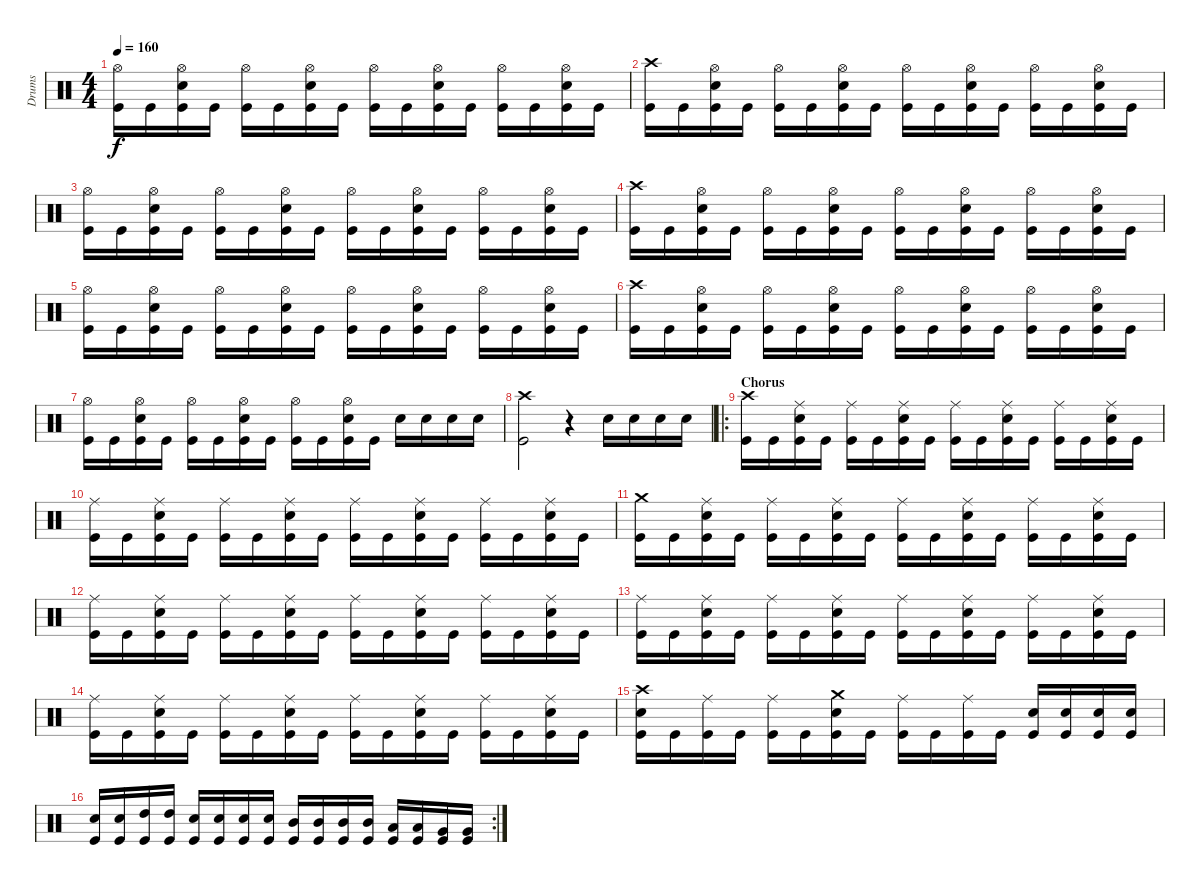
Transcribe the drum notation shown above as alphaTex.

\track ("Drums" "Drums") {instrument percussion}
\staff {score}
\articulation defaults
\ts (4 4)
\tempo 160
\clef neutral
\ks c
("Hi-Hat (open)" "Kick (hit)").16{dy f} "Kick (hit)".16 ("Hi-Hat (open)" "Electric Snare (hit)" "Kick (hit)").16 "Kick (hit)".16 ("Hi-Hat (open)" "Kick (hit)").16 "Kick (hit)".16 ("Hi-Hat (open)" "Electric Snare (hit)" "Kick (hit)").16 "Kick (hit)".16 ("Hi-Hat (open)" "Kick (hit)").16 "Kick (hit)".16 ("Hi-Hat (open)" "Electric Snare (hit)" "Kick (hit)").16 "Kick (hit)".16 ("Hi-Hat (open)" "Kick (hit)").16 "Kick (hit)".16 ("Hi-Hat (open)" "Electric Snare (hit)" "Kick (hit)").16 "Kick (hit)".16 |
("Crash high (hit)" "Kick (hit)").16 "Kick (hit)".16 ("Hi-Hat (open)" "Electric Snare (hit)" "Kick (hit)").16 "Kick (hit)".16 ("Hi-Hat (open)" "Kick (hit)").16 "Kick (hit)".16 ("Hi-Hat (open)" "Electric Snare (hit)" "Kick (hit)").16 "Kick (hit)".16 ("Hi-Hat (open)" "Kick (hit)").16 "Kick (hit)".16 ("Hi-Hat (open)" "Electric Snare (hit)" "Kick (hit)").16 "Kick (hit)".16 ("Hi-Hat (open)" "Kick (hit)").16 "Kick (hit)".16 ("Hi-Hat (open)" "Electric Snare (hit)" "Kick (hit)").16 "Kick (hit)".16 |
("Hi-Hat (open)" "Kick (hit)").16 "Kick (hit)".16 ("Hi-Hat (open)" "Electric Snare (hit)" "Kick (hit)").16 "Kick (hit)".16 ("Hi-Hat (open)" "Kick (hit)").16 "Kick (hit)".16 ("Hi-Hat (open)" "Electric Snare (hit)" "Kick (hit)").16 "Kick (hit)".16 ("Hi-Hat (open)" "Kick (hit)").16 "Kick (hit)".16 ("Hi-Hat (open)" "Electric Snare (hit)" "Kick (hit)").16 "Kick (hit)".16 ("Hi-Hat (open)" "Kick (hit)").16 "Kick (hit)".16 ("Hi-Hat (open)" "Electric Snare (hit)" "Kick (hit)").16 "Kick (hit)".16 |
("Crash high (hit)" "Kick (hit)").16 "Kick (hit)".16 ("Hi-Hat (open)" "Electric Snare (hit)" "Kick (hit)").16 "Kick (hit)".16 ("Hi-Hat (open)" "Kick (hit)").16 "Kick (hit)".16 ("Hi-Hat (open)" "Electric Snare (hit)" "Kick (hit)").16 "Kick (hit)".16 ("Hi-Hat (open)" "Kick (hit)").16 "Kick (hit)".16 ("Hi-Hat (open)" "Electric Snare (hit)" "Kick (hit)").16 "Kick (hit)".16 ("Hi-Hat (open)" "Kick (hit)").16 "Kick (hit)".16 ("Hi-Hat (open)" "Electric Snare (hit)" "Kick (hit)").16 "Kick (hit)".16 |
("Hi-Hat (open)" "Kick (hit)").16 "Kick (hit)".16 ("Hi-Hat (open)" "Electric Snare (hit)" "Kick (hit)").16 "Kick (hit)".16 ("Hi-Hat (open)" "Kick (hit)").16 "Kick (hit)".16 ("Hi-Hat (open)" "Electric Snare (hit)" "Kick (hit)").16 "Kick (hit)".16 ("Hi-Hat (open)" "Kick (hit)").16 "Kick (hit)".16 ("Hi-Hat (open)" "Electric Snare (hit)" "Kick (hit)").16 "Kick (hit)".16 ("Hi-Hat (open)" "Kick (hit)").16 "Kick (hit)".16 ("Hi-Hat (open)" "Electric Snare (hit)" "Kick (hit)").16 "Kick (hit)".16 |
("Crash high (hit)" "Kick (hit)").16 "Kick (hit)".16 ("Hi-Hat (open)" "Electric Snare (hit)" "Kick (hit)").16 "Kick (hit)".16 ("Hi-Hat (open)" "Kick (hit)").16 "Kick (hit)".16 ("Hi-Hat (open)" "Electric Snare (hit)" "Kick (hit)").16 "Kick (hit)".16 ("Hi-Hat (open)" "Kick (hit)").16 "Kick (hit)".16 ("Hi-Hat (open)" "Electric Snare (hit)" "Kick (hit)").16 "Kick (hit)".16 ("Hi-Hat (open)" "Kick (hit)").16 "Kick (hit)".16 ("Hi-Hat (open)" "Electric Snare (hit)" "Kick (hit)").16 "Kick (hit)".16 |
("Hi-Hat (open)" "Kick (hit)").16 "Kick (hit)".16 ("Hi-Hat (open)" "Electric Snare (hit)" "Kick (hit)").16 "Kick (hit)".16 ("Hi-Hat (open)" "Kick (hit)").16 "Kick (hit)".16 ("Hi-Hat (open)" "Electric Snare (hit)" "Kick (hit)").16 "Kick (hit)".16 ("Hi-Hat (open)" "Kick (hit)").16 "Kick (hit)".16 ("Hi-Hat (open)" "Electric Snare (hit)" "Kick (hit)").16 "Kick (hit)".16 "Electric Snare (hit)".16 "Electric Snare (hit)".16 "Electric Snare (hit)".16 "Electric Snare (hit)".16 |
("Crash high (hit)" "Kick (hit)").2 r.4 "Electric Snare (hit)".16 "Electric Snare (hit)".16 "Electric Snare (hit)".16 "Electric Snare (hit)".16 |
\ro
\section ("" "Chorus")
("Crash high (hit)" "Kick (hit)").16 "Kick (hit)".16 ("Ride (middle)" "Electric Snare (hit)" "Kick (hit)").16 "Kick (hit)".16 ("Ride (middle)" "Kick (hit)").16 "Kick (hit)".16 ("Ride (middle)" "Electric Snare (hit)" "Kick (hit)").16 "Kick (hit)".16 ("Ride (middle)" "Kick (hit)").16 "Kick (hit)".16 ("Ride (middle)" "Electric Snare (hit)" "Kick (hit)").16 "Kick (hit)".16 ("Ride (middle)" "Kick (hit)").16 "Kick (hit)".16 ("Ride (middle)" "Electric Snare (hit)" "Kick (hit)").16 "Kick (hit)".16 |
("Ride (middle)" "Kick (hit)").16 "Kick (hit)".16 ("Ride (middle)" "Electric Snare (hit)" "Kick (hit)").16 "Kick (hit)".16 ("Ride (middle)" "Kick (hit)").16 "Kick (hit)".16 ("Ride (middle)" "Electric Snare (hit)" "Kick (hit)").16 "Kick (hit)".16 ("Ride (middle)" "Kick (hit)").16 "Kick (hit)".16 ("Ride (middle)" "Electric Snare (hit)" "Kick (hit)").16 "Kick (hit)".16 ("Ride (middle)" "Kick (hit)").16 "Kick (hit)".16 ("Ride (middle)" "Electric Snare (hit)" "Kick (hit)").16 "Kick (hit)".16 |
("Crash medium (hit)" "Kick (hit)").16 "Kick (hit)".16 ("Ride (middle)" "Electric Snare (hit)" "Kick (hit)").16 "Kick (hit)".16 ("Ride (middle)" "Kick (hit)").16 "Kick (hit)".16 ("Ride (middle)" "Electric Snare (hit)" "Kick (hit)").16 "Kick (hit)".16 ("Ride (middle)" "Kick (hit)").16 "Kick (hit)".16 ("Ride (middle)" "Electric Snare (hit)" "Kick (hit)").16 "Kick (hit)".16 ("Ride (middle)" "Kick (hit)").16 "Kick (hit)".16 ("Ride (middle)" "Electric Snare (hit)" "Kick (hit)").16 "Kick (hit)".16 |
("Ride (middle)" "Kick (hit)").16 "Kick (hit)".16 ("Ride (middle)" "Electric Snare (hit)" "Kick (hit)").16 "Kick (hit)".16 ("Ride (middle)" "Kick (hit)").16 "Kick (hit)".16 ("Ride (middle)" "Electric Snare (hit)" "Kick (hit)").16 "Kick (hit)".16 ("Ride (middle)" "Kick (hit)").16 "Kick (hit)".16 ("Ride (middle)" "Electric Snare (hit)" "Kick (hit)").16 "Kick (hit)".16 ("Ride (middle)" "Kick (hit)").16 "Kick (hit)".16 ("Ride (middle)" "Electric Snare (hit)" "Kick (hit)").16 "Kick (hit)".16 |
("Ride (middle)" "Kick (hit)").16 "Kick (hit)".16 ("Ride (middle)" "Electric Snare (hit)" "Kick (hit)").16 "Kick (hit)".16 ("Ride (middle)" "Kick (hit)").16 "Kick (hit)".16 ("Ride (middle)" "Electric Snare (hit)" "Kick (hit)").16 "Kick (hit)".16 ("Ride (middle)" "Kick (hit)").16 "Kick (hit)".16 ("Ride (middle)" "Electric Snare (hit)" "Kick (hit)").16 "Kick (hit)".16 ("Ride (middle)" "Kick (hit)").16 "Kick (hit)".16 ("Ride (middle)" "Electric Snare (hit)" "Kick (hit)").16 "Kick (hit)".16 |
("Ride (middle)" "Kick (hit)").16 "Kick (hit)".16 ("Ride (middle)" "Electric Snare (hit)" "Kick (hit)").16 "Kick (hit)".16 ("Ride (middle)" "Kick (hit)").16 "Kick (hit)".16 ("Ride (middle)" "Electric Snare (hit)" "Kick (hit)").16 "Kick (hit)".16 ("Ride (middle)" "Kick (hit)").16 "Kick (hit)".16 ("Ride (middle)" "Electric Snare (hit)" "Kick (hit)").16 "Kick (hit)".16 ("Ride (middle)" "Kick (hit)").16 "Kick (hit)".16 ("Ride (middle)" "Electric Snare (hit)" "Kick (hit)").16 "Kick (hit)".16 |
("Crash high (hit)" "Electric Snare (hit)" "Kick (hit)").16 "Kick (hit)".16 ("Ride (middle)" "Kick (hit)").16 "Kick (hit)".16 ("Ride (middle)" "Kick (hit)").16 "Kick (hit)".16 ("Crash medium (hit)" "Electric Snare (hit)" "Kick (hit)").16 "Kick (hit)".16 ("Ride (middle)" "Kick (hit)").16 "Kick (hit)".16 ("Ride (middle)" "Kick (hit)").16 "Kick (hit)".16 ("Electric Snare (hit)" "Kick (hit)").16 ("Electric Snare (hit)" "Kick (hit)").16 ("Electric Snare (hit)" "Kick (hit)").16 ("Electric Snare (hit)" "Kick (hit)").16 |
\rc 2
("Electric Snare (hit)" "Kick (hit)").16 ("Electric Snare (hit)" "Kick (hit)").16 ("High Tom (hit)" "Kick (hit)").16 ("High Tom (hit)" "Kick (hit)").16 ("Electric Snare (hit)" "Kick (hit)").16 ("Electric Snare (hit)" "Kick (hit)").16 ("Electric Snare (hit)" "Kick (hit)").16 ("Electric Snare (hit)" "Kick (hit)").16 ("Mid Tom (hit)" "Kick (hit)").16 ("Mid Tom (hit)" "Kick (hit)").16 ("Mid Tom (hit)" "Kick (hit)").16 ("Mid Tom (hit)" "Kick (hit)").16 ("Low Tom (hit)" "Kick (hit)").16 ("Low Tom (hit)" "Kick (hit)").16 ("Very Low Tom (hit)" "Kick (hit)").16 ("Very Low Tom (hit)" "Kick (hit)").16
